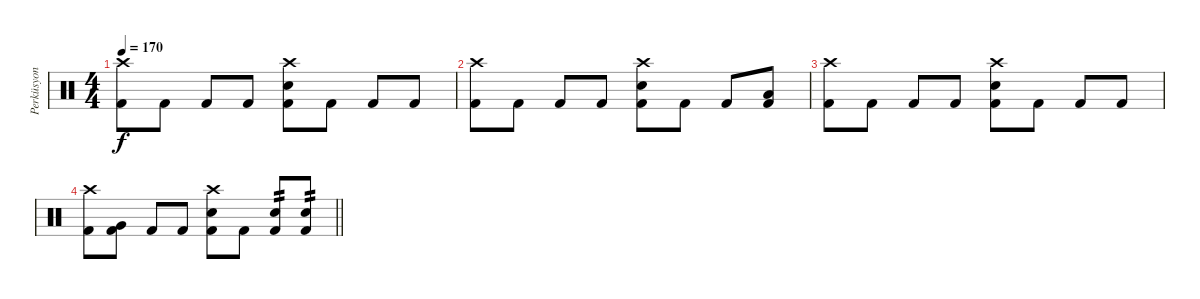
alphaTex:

\track ("Perküsyon" "Perküsyon") {instrument percussion}
\staff {score}
\articulation defaults
\ts (4 4)
\tempo 170
\clef neutral
\ks c
("Crash high (hit)" "Kick (hit) 2").8{dy f} "Kick (hit) 2".8 "Kick (hit) 2".8 "Kick (hit) 2".8 ("Crash high (hit)" "Snare (hit) 2" "Kick (hit) 2").8 "Kick (hit) 2".8 "Kick (hit) 2".8 "Kick (hit) 2".8 |
("Crash high (hit)" "Kick (hit) 2").8 "Kick (hit) 2".8 "Kick (hit) 2".8 "Kick (hit) 2".8 ("Crash high (hit)" "Snare (hit) 2" "Kick (hit) 2").8 "Kick (hit) 2".8 "Kick (hit) 2".8 ("Low Floor Tom (hit)" "Kick (hit) 2").8 |
("Crash high (hit)" "Kick (hit) 2").8 "Kick (hit) 2".8 "Kick (hit) 2".8 "Kick (hit) 2".8 ("Crash high (hit)" "Snare (hit) 2" "Kick (hit) 2").8 "Kick (hit) 2".8 "Kick (hit) 2".8 "Kick (hit) 2".8 |
\barLineRight lightlight
("Crash high (hit)" "Kick (hit) 2").8 ("Very Low Tom (hit)" "Kick (hit) 2").8 "Kick (hit) 2".8 "Kick (hit) 2".8 ("Crash high (hit)" "Snare (hit) 2" "Kick (hit) 2").8 "Kick (hit) 2".8 ("Snare (hit) 2" "Kick (hit) 2").8{tp 2} ("Snare (hit) 2" "Kick (hit) 2").8{tp 2}
